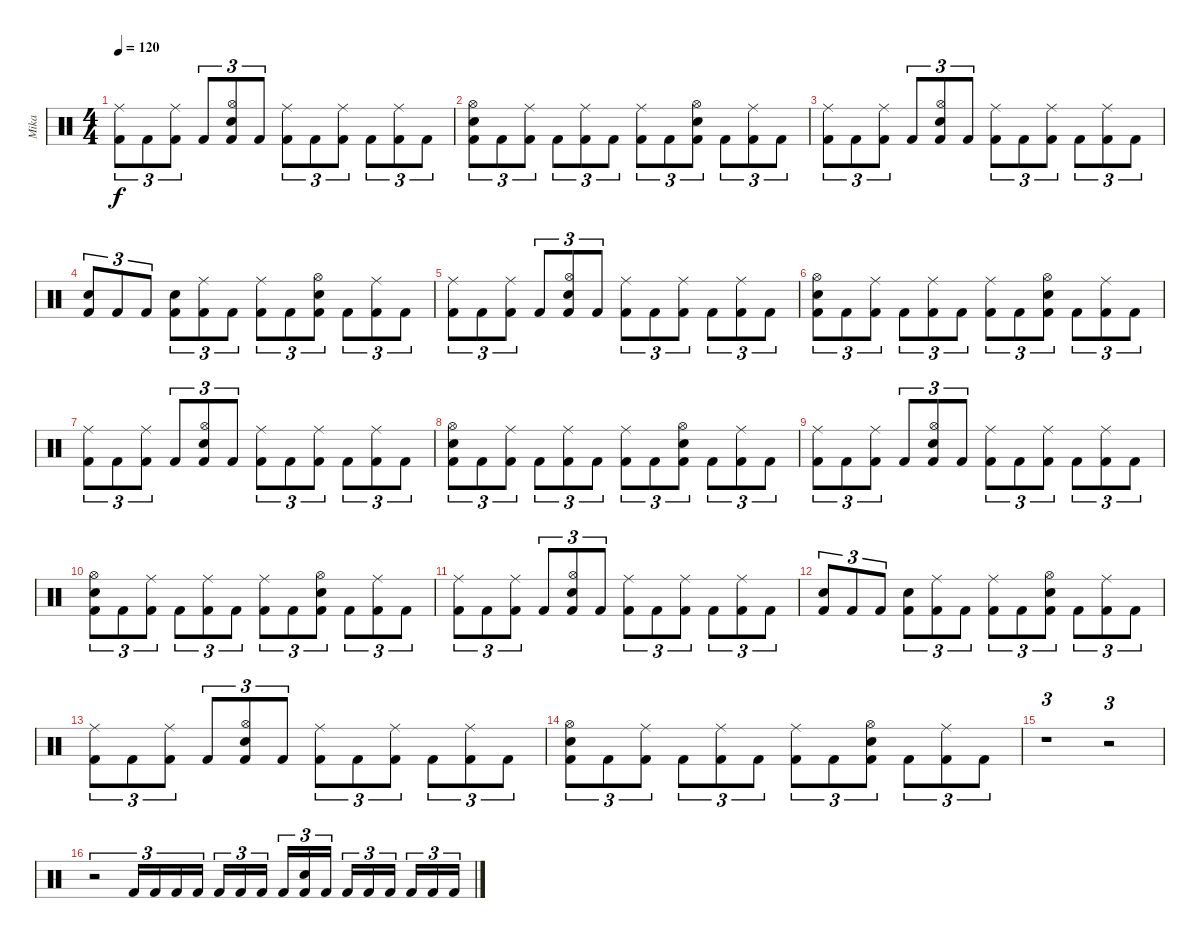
\track ("Mika" "Mika") {instrument percussion}
\staff {score}
\articulation defaults
\ts (4 4)
\tempo 120
\clef neutral
\ks c
("Ride (middle)" "Kick (hit) 2").8{tu (3 2) dy f} "Kick (hit) 2".8{tu (3 2)} ("Ride (middle)" "Kick (hit) 2").8{tu (3 2)} "Kick (hit) 2".8{tu (3 2)} ("Hi-Hat (open)" "Electric Snare (hit)" "Kick (hit) 2").8{tu (3 2)} "Kick (hit) 2".8{tu (3 2)} ("Ride (middle)" "Kick (hit) 2").8{tu (3 2)} "Kick (hit) 2".8{tu (3 2)} ("Ride (middle)" "Kick (hit) 2").8{tu (3 2)} "Kick (hit) 2".8{tu (3 2)} ("Ride (middle)" "Kick (hit) 2").8{tu (3 2)} "Kick (hit) 2".8{tu (3 2)} |
("Hi-Hat (open)" "Electric Snare (hit)" "Kick (hit) 2").8{tu (3 2)} "Kick (hit) 2".8{tu (3 2)} ("Ride (middle)" "Kick (hit) 2").8{tu (3 2)} "Kick (hit) 2".8{tu (3 2)} ("Ride (middle)" "Kick (hit) 2").8{tu (3 2)} "Kick (hit) 2".8{tu (3 2)} ("Ride (middle)" "Kick (hit) 2").8{tu (3 2)} "Kick (hit) 2".8{tu (3 2)} ("Hi-Hat (open)" "Electric Snare (hit)" "Kick (hit) 2").8{tu (3 2)} "Kick (hit) 2".8{tu (3 2)} ("Ride (middle)" "Kick (hit) 2").8{tu (3 2)} "Kick (hit) 2".8{tu (3 2)} |
("Ride (middle)" "Kick (hit) 2").8{tu (3 2)} "Kick (hit) 2".8{tu (3 2)} ("Ride (middle)" "Kick (hit) 2").8{tu (3 2)} "Kick (hit) 2".8{tu (3 2)} ("Hi-Hat (open)" "Electric Snare (hit)" "Kick (hit) 2").8{tu (3 2)} "Kick (hit) 2".8{tu (3 2)} ("Ride (middle)" "Kick (hit) 2").8{tu (3 2)} "Kick (hit) 2".8{tu (3 2)} ("Ride (middle)" "Kick (hit) 2").8{tu (3 2)} "Kick (hit) 2".8{tu (3 2)} ("Ride (middle)" "Kick (hit) 2").8{tu (3 2)} "Kick (hit) 2".8{tu (3 2)} |
("Electric Snare (hit)" "Kick (hit) 2").8{tu (3 2)} "Kick (hit) 2".8{tu (3 2)} "Kick (hit) 2".8{tu (3 2)} ("Electric Snare (hit)" "Kick (hit) 2").8{tu (3 2)} ("Ride (middle)" "Kick (hit) 2").8{tu (3 2)} "Kick (hit) 2".8{tu (3 2)} ("Ride (middle)" "Kick (hit) 2").8{tu (3 2)} "Kick (hit) 2".8{tu (3 2)} ("Hi-Hat (open)" "Electric Snare (hit)" "Kick (hit) 2").8{tu (3 2)} "Kick (hit) 2".8{tu (3 2)} ("Ride (middle)" "Kick (hit) 2").8{tu (3 2)} "Kick (hit) 2".8{tu (3 2)} |
("Ride (middle)" "Kick (hit) 2").8{tu (3 2)} "Kick (hit) 2".8{tu (3 2)} ("Ride (middle)" "Kick (hit) 2").8{tu (3 2)} "Kick (hit) 2".8{tu (3 2)} ("Hi-Hat (open)" "Electric Snare (hit)" "Kick (hit) 2").8{tu (3 2)} "Kick (hit) 2".8{tu (3 2)} ("Ride (middle)" "Kick (hit) 2").8{tu (3 2)} "Kick (hit) 2".8{tu (3 2)} ("Ride (middle)" "Kick (hit) 2").8{tu (3 2)} "Kick (hit) 2".8{tu (3 2)} ("Ride (middle)" "Kick (hit) 2").8{tu (3 2)} "Kick (hit) 2".8{tu (3 2)} |
("Hi-Hat (open)" "Electric Snare (hit)" "Kick (hit) 2").8{tu (3 2)} "Kick (hit) 2".8{tu (3 2)} ("Ride (middle)" "Kick (hit) 2").8{tu (3 2)} "Kick (hit) 2".8{tu (3 2)} ("Ride (middle)" "Kick (hit) 2").8{tu (3 2)} "Kick (hit) 2".8{tu (3 2)} ("Ride (middle)" "Kick (hit) 2").8{tu (3 2)} "Kick (hit) 2".8{tu (3 2)} ("Hi-Hat (open)" "Electric Snare (hit)" "Kick (hit) 2").8{tu (3 2)} "Kick (hit) 2".8{tu (3 2)} ("Ride (middle)" "Kick (hit) 2").8{tu (3 2)} "Kick (hit) 2".8{tu (3 2)} |
("Ride (middle)" "Kick (hit) 2").8{tu (3 2)} "Kick (hit) 2".8{tu (3 2)} ("Ride (middle)" "Kick (hit) 2").8{tu (3 2)} "Kick (hit) 2".8{tu (3 2)} ("Hi-Hat (open)" "Electric Snare (hit)" "Kick (hit) 2").8{tu (3 2)} "Kick (hit) 2".8{tu (3 2)} ("Ride (middle)" "Kick (hit) 2").8{tu (3 2)} "Kick (hit) 2".8{tu (3 2)} ("Ride (middle)" "Kick (hit) 2").8{tu (3 2)} "Kick (hit) 2".8{tu (3 2)} ("Ride (middle)" "Kick (hit) 2").8{tu (3 2)} "Kick (hit) 2".8{tu (3 2)} |
("Hi-Hat (open)" "Electric Snare (hit)" "Kick (hit) 2").8{tu (3 2)} "Kick (hit) 2".8{tu (3 2)} ("Ride (middle)" "Kick (hit) 2").8{tu (3 2)} "Kick (hit) 2".8{tu (3 2)} ("Ride (middle)" "Kick (hit) 2").8{tu (3 2)} "Kick (hit) 2".8{tu (3 2)} ("Ride (middle)" "Kick (hit) 2").8{tu (3 2)} "Kick (hit) 2".8{tu (3 2)} ("Hi-Hat (open)" "Electric Snare (hit)" "Kick (hit) 2").8{tu (3 2)} "Kick (hit) 2".8{tu (3 2)} ("Ride (middle)" "Kick (hit) 2").8{tu (3 2)} "Kick (hit) 2".8{tu (3 2)} |
("Ride (middle)" "Kick (hit) 2").8{tu (3 2)} "Kick (hit) 2".8{tu (3 2)} ("Ride (middle)" "Kick (hit) 2").8{tu (3 2)} "Kick (hit) 2".8{tu (3 2)} ("Hi-Hat (open)" "Electric Snare (hit)" "Kick (hit) 2").8{tu (3 2)} "Kick (hit) 2".8{tu (3 2)} ("Ride (middle)" "Kick (hit) 2").8{tu (3 2)} "Kick (hit) 2".8{tu (3 2)} ("Ride (middle)" "Kick (hit) 2").8{tu (3 2)} "Kick (hit) 2".8{tu (3 2)} ("Ride (middle)" "Kick (hit) 2").8{tu (3 2)} "Kick (hit) 2".8{tu (3 2)} |
("Hi-Hat (open)" "Electric Snare (hit)" "Kick (hit) 2").8{tu (3 2)} "Kick (hit) 2".8{tu (3 2)} ("Ride (middle)" "Kick (hit) 2").8{tu (3 2)} "Kick (hit) 2".8{tu (3 2)} ("Ride (middle)" "Kick (hit) 2").8{tu (3 2)} "Kick (hit) 2".8{tu (3 2)} ("Ride (middle)" "Kick (hit) 2").8{tu (3 2)} "Kick (hit) 2".8{tu (3 2)} ("Hi-Hat (open)" "Electric Snare (hit)" "Kick (hit) 2").8{tu (3 2)} "Kick (hit) 2".8{tu (3 2)} ("Ride (middle)" "Kick (hit) 2").8{tu (3 2)} "Kick (hit) 2".8{tu (3 2)} |
("Ride (middle)" "Kick (hit) 2").8{tu (3 2)} "Kick (hit) 2".8{tu (3 2)} ("Ride (middle)" "Kick (hit) 2").8{tu (3 2)} "Kick (hit) 2".8{tu (3 2)} ("Hi-Hat (open)" "Electric Snare (hit)" "Kick (hit) 2").8{tu (3 2)} "Kick (hit) 2".8{tu (3 2)} ("Ride (middle)" "Kick (hit) 2").8{tu (3 2)} "Kick (hit) 2".8{tu (3 2)} ("Ride (middle)" "Kick (hit) 2").8{tu (3 2)} "Kick (hit) 2".8{tu (3 2)} ("Ride (middle)" "Kick (hit) 2").8{tu (3 2)} "Kick (hit) 2".8{tu (3 2)} |
("Electric Snare (hit)" "Kick (hit) 2").8{tu (3 2)} "Kick (hit) 2".8{tu (3 2)} "Kick (hit) 2".8{tu (3 2)} ("Electric Snare (hit)" "Kick (hit) 2").8{tu (3 2)} ("Ride (middle)" "Kick (hit) 2").8{tu (3 2)} "Kick (hit) 2".8{tu (3 2)} ("Ride (middle)" "Kick (hit) 2").8{tu (3 2)} "Kick (hit) 2".8{tu (3 2)} ("Hi-Hat (open)" "Electric Snare (hit)" "Kick (hit) 2").8{tu (3 2)} "Kick (hit) 2".8{tu (3 2)} ("Ride (middle)" "Kick (hit) 2").8{tu (3 2)} "Kick (hit) 2".8{tu (3 2)} |
("Ride (middle)" "Kick (hit) 2").8{tu (3 2)} "Kick (hit) 2".8{tu (3 2)} ("Ride (middle)" "Kick (hit) 2").8{tu (3 2)} "Kick (hit) 2".8{tu (3 2)} ("Hi-Hat (open)" "Electric Snare (hit)" "Kick (hit) 2").8{tu (3 2)} "Kick (hit) 2".8{tu (3 2)} ("Ride (middle)" "Kick (hit) 2").8{tu (3 2)} "Kick (hit) 2".8{tu (3 2)} ("Ride (middle)" "Kick (hit) 2").8{tu (3 2)} "Kick (hit) 2".8{tu (3 2)} ("Ride (middle)" "Kick (hit) 2").8{tu (3 2)} "Kick (hit) 2".8{tu (3 2)} |
("Hi-Hat (open)" "Electric Snare (hit)" "Kick (hit) 2").8{tu (3 2)} "Kick (hit) 2".8{tu (3 2)} ("Ride (middle)" "Kick (hit) 2").8{tu (3 2)} "Kick (hit) 2".8{tu (3 2)} ("Ride (middle)" "Kick (hit) 2").8{tu (3 2)} "Kick (hit) 2".8{tu (3 2)} ("Ride (middle)" "Kick (hit) 2").8{tu (3 2)} "Kick (hit) 2".8{tu (3 2)} ("Hi-Hat (open)" "Electric Snare (hit)" "Kick (hit) 2").8{tu (3 2)} "Kick (hit) 2".8{tu (3 2)} ("Ride (middle)" "Kick (hit) 2").8{tu (3 2)} "Kick (hit) 2".8{tu (3 2)} |
r.1{tu (3 2)} r.2{tu (3 2)} |
r.2{tu (3 2)} "Kick (hit) 2".16{tu (3 2)} "Kick (hit) 2".16{tu (3 2)} "Kick (hit) 2".16{tu (3 2)} "Kick (hit) 2".16{tu (3 2)} "Kick (hit) 2".16{tu (3 2)} "Kick (hit) 2".16{tu (3 2)} "Kick (hit) 2".16{tu (3 2) beam splitsecondary} "Kick (hit) 2".16{tu (3 2)} ("Electric Snare (hit)" "Kick (hit) 2").16{tu (3 2)} "Kick (hit) 2".16{tu (3 2)} "Kick (hit) 2".16{tu (3 2)} "Kick (hit) 2".16{tu (3 2)} "Kick (hit) 2".16{tu (3 2) beam splitsecondary} "Kick (hit) 2".16{tu (3 2)} "Kick (hit) 2".16{tu (3 2)} "Kick (hit) 2".16{tu (3 2)}
